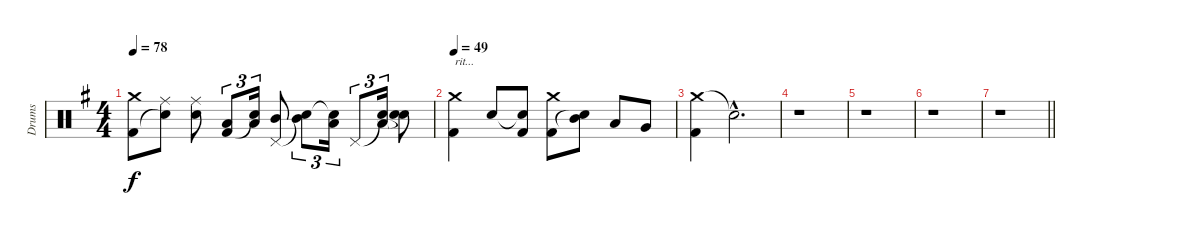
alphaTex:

\track ("Drums" "Drums") {instrument percussion}
\staff {score}
\articulation defaults
\ts (4 4)
\tempo 78
\clef neutral
\ks g
("Crash medium (hit)" "Kick (hit) 2").8{dy f} ("Ride (middle)" "Snare (hit)"{t}).8 ("Ride (middle)" "Electric Snare (hit)").8 ("Low Tom (hit)" "Kick (hit) 2").8{tu (3 2)} ("Low Tom (hit)" "Snare (hit)"{t}).16{tu (3 2)} ("Pedal Hi-Hat (hit)" "Mid Tom (hit)").8 ("Snare (hit)"{t} "Mid Tom (hit)").8{tu (3 2)} ("Snare (hit)"{t} "Low Tom (hit)").16{tu (3 2)} "Pedal Hi-Hat (hit)".8{tu (3 2)} ("Snare (hit)"{t} "Low Tom (hit)").16{tu (3 2)} ("Snare (hit)"{t} "Snare (hit)"{t}).8 |
\tempo 49
("Crash medium (hit)" "Kick (hit) 2").4{txt "rit..."} "Electric Snare (hit)".8 ("Snare (hit)"{t} "Kick (hit) 2").8 ("Crash medium (hit)" "Kick (hit) 2").8 ("Mid Tom (hit)" "Snare (hit)"{t}).8 "Low Tom (hit)".8 "Very Low Tom (hit)".8 |
("Crash medium (hit)" "Kick (hit) 2").4 "Snare (hit)"{hac t}.2{d} |
r.1 |
r.1 |
r.1 |
\barLineRight lightlight
r.1
